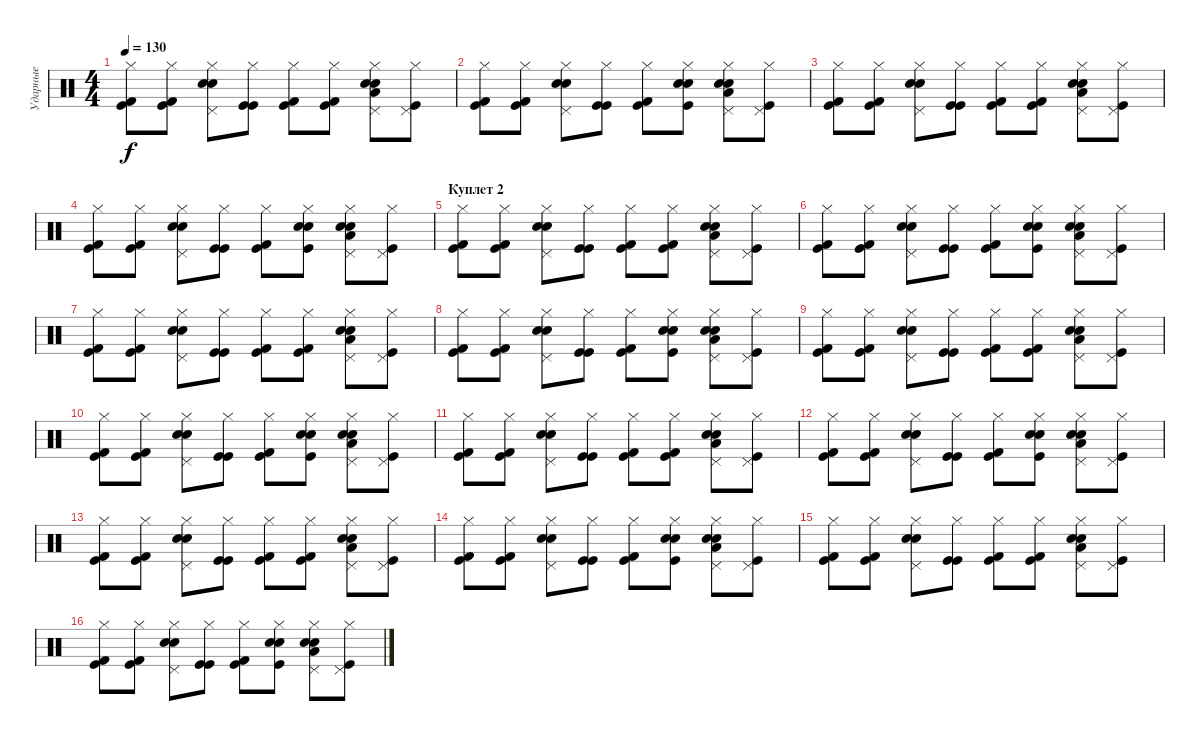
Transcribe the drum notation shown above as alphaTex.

\track ("Ударные" "Ударные") {instrument percussion}
\staff {score}
\articulation defaults
\ts (4 4)
\tempo 130
\clef neutral
\ks c
("Kick (hit)" "Kick (hit) 2" "Hi-Hat (closed)").8{dy f} ("Kick (hit)" "Kick (hit) 2" "Hi-Hat (closed)").8 ("Electric Snare (hit)" "Pedal Hi-Hat (hit)" "Hi-Hat (closed)" "Snare (hit) 2").8 ("Kick (hit)" "Kick (hit)" "Hi-Hat (closed)").8 ("Kick (hit)" "Kick (hit) 2" "Hi-Hat (closed)").8 ("Kick (hit)" "Kick (hit) 2" "Hi-Hat (closed)").8 ("Low Tom (hit)" "Electric Snare (hit)" "Pedal Hi-Hat (hit)" "Hi-Hat (closed)" "Snare (hit) 2").8 ("Pedal Hi-Hat (hit)" "Kick (hit)" "Hi-Hat (closed)").8 |
("Kick (hit)" "Kick (hit) 2" "Hi-Hat (closed)").8 ("Kick (hit)" "Kick (hit) 2" "Hi-Hat (closed)").8 ("Snare (hit) 2" "Electric Snare (hit)" "Pedal Hi-Hat (hit)" "Hi-Hat (closed)").8 ("Kick (hit)" "Kick (hit)" "Hi-Hat (closed)").8 ("Kick (hit)" "Kick (hit) 2" "Hi-Hat (closed)").8 ("Kick (hit)" "Electric Snare (hit)" "Hi-Hat (closed)" "Snare (hit) 2").8 ("Low Tom (hit)" "Electric Snare (hit)" "Pedal Hi-Hat (hit)" "Hi-Hat (closed)" "Snare (hit) 2").8 ("Pedal Hi-Hat (hit)" "Kick (hit)" "Hi-Hat (closed)").8 |
("Kick (hit)" "Kick (hit) 2" "Hi-Hat (closed)").8 ("Kick (hit)" "Kick (hit) 2" "Hi-Hat (closed)").8 ("Electric Snare (hit)" "Pedal Hi-Hat (hit)" "Hi-Hat (closed)" "Snare (hit) 2").8 ("Kick (hit)" "Kick (hit)" "Hi-Hat (closed)").8 ("Kick (hit)" "Kick (hit) 2" "Hi-Hat (closed)").8 ("Kick (hit)" "Kick (hit) 2" "Hi-Hat (closed)").8 ("Low Tom (hit)" "Electric Snare (hit)" "Pedal Hi-Hat (hit)" "Hi-Hat (closed)" "Snare (hit) 2").8 ("Pedal Hi-Hat (hit)" "Kick (hit)" "Hi-Hat (closed)").8 |
("Kick (hit)" "Kick (hit) 2" "Hi-Hat (closed)").8 ("Kick (hit)" "Kick (hit) 2" "Hi-Hat (closed)").8 ("Snare (hit) 2" "Electric Snare (hit)" "Pedal Hi-Hat (hit)" "Hi-Hat (closed)").8 ("Kick (hit)" "Kick (hit)" "Hi-Hat (closed)").8 ("Kick (hit)" "Kick (hit) 2" "Hi-Hat (closed)").8 ("Kick (hit)" "Electric Snare (hit)" "Hi-Hat (closed)" "Snare (hit) 2").8 ("Low Tom (hit)" "Electric Snare (hit)" "Pedal Hi-Hat (hit)" "Hi-Hat (closed)" "Snare (hit) 2").8 ("Pedal Hi-Hat (hit)" "Kick (hit)" "Hi-Hat (closed)").8 |
\section ("" "Куплет 2")
("Kick (hit)" "Kick (hit) 2" "Hi-Hat (closed)").8 ("Kick (hit)" "Kick (hit) 2" "Hi-Hat (closed)").8 ("Electric Snare (hit)" "Pedal Hi-Hat (hit)" "Hi-Hat (closed)" "Snare (hit) 2").8 ("Kick (hit)" "Kick (hit)" "Hi-Hat (closed)").8 ("Kick (hit)" "Kick (hit) 2" "Hi-Hat (closed)").8 ("Kick (hit)" "Kick (hit) 2" "Hi-Hat (closed)").8 ("Low Tom (hit)" "Electric Snare (hit)" "Pedal Hi-Hat (hit)" "Hi-Hat (closed)" "Snare (hit) 2").8 ("Pedal Hi-Hat (hit)" "Kick (hit)" "Hi-Hat (closed)").8 |
("Kick (hit)" "Kick (hit) 2" "Hi-Hat (closed)").8 ("Kick (hit)" "Kick (hit) 2" "Hi-Hat (closed)").8 ("Snare (hit) 2" "Electric Snare (hit)" "Pedal Hi-Hat (hit)" "Hi-Hat (closed)").8 ("Kick (hit)" "Kick (hit)" "Hi-Hat (closed)").8 ("Kick (hit)" "Kick (hit) 2" "Hi-Hat (closed)").8 ("Kick (hit)" "Electric Snare (hit)" "Hi-Hat (closed)" "Snare (hit) 2").8 ("Low Tom (hit)" "Electric Snare (hit)" "Pedal Hi-Hat (hit)" "Hi-Hat (closed)" "Snare (hit) 2").8 ("Pedal Hi-Hat (hit)" "Kick (hit)" "Hi-Hat (closed)").8 |
("Kick (hit)" "Kick (hit) 2" "Hi-Hat (closed)").8 ("Kick (hit)" "Kick (hit) 2" "Hi-Hat (closed)").8 ("Electric Snare (hit)" "Pedal Hi-Hat (hit)" "Hi-Hat (closed)" "Snare (hit) 2").8 ("Kick (hit)" "Kick (hit)" "Hi-Hat (closed)").8 ("Kick (hit)" "Kick (hit) 2" "Hi-Hat (closed)").8 ("Kick (hit)" "Kick (hit) 2" "Hi-Hat (closed)").8 ("Low Tom (hit)" "Electric Snare (hit)" "Pedal Hi-Hat (hit)" "Hi-Hat (closed)" "Snare (hit) 2").8 ("Pedal Hi-Hat (hit)" "Kick (hit)" "Hi-Hat (closed)").8 |
("Kick (hit)" "Kick (hit) 2" "Hi-Hat (closed)").8 ("Kick (hit)" "Kick (hit) 2" "Hi-Hat (closed)").8 ("Snare (hit) 2" "Electric Snare (hit)" "Pedal Hi-Hat (hit)" "Hi-Hat (closed)").8 ("Kick (hit)" "Kick (hit)" "Hi-Hat (closed)").8 ("Kick (hit)" "Kick (hit) 2" "Hi-Hat (closed)").8 ("Kick (hit)" "Electric Snare (hit)" "Hi-Hat (closed)" "Snare (hit) 2").8 ("Low Tom (hit)" "Electric Snare (hit)" "Pedal Hi-Hat (hit)" "Hi-Hat (closed)" "Snare (hit) 2").8 ("Pedal Hi-Hat (hit)" "Kick (hit)" "Hi-Hat (closed)").8 |
("Kick (hit)" "Kick (hit) 2" "Hi-Hat (closed)").8 ("Kick (hit)" "Kick (hit) 2" "Hi-Hat (closed)").8 ("Electric Snare (hit)" "Pedal Hi-Hat (hit)" "Hi-Hat (closed)" "Snare (hit) 2").8 ("Kick (hit)" "Kick (hit)" "Hi-Hat (closed)").8 ("Kick (hit)" "Kick (hit) 2" "Hi-Hat (closed)").8 ("Kick (hit)" "Kick (hit) 2" "Hi-Hat (closed)").8 ("Low Tom (hit)" "Electric Snare (hit)" "Pedal Hi-Hat (hit)" "Hi-Hat (closed)" "Snare (hit) 2").8 ("Pedal Hi-Hat (hit)" "Kick (hit)" "Hi-Hat (closed)").8 |
("Kick (hit)" "Kick (hit) 2" "Hi-Hat (closed)").8 ("Kick (hit)" "Kick (hit) 2" "Hi-Hat (closed)").8 ("Snare (hit) 2" "Electric Snare (hit)" "Pedal Hi-Hat (hit)" "Hi-Hat (closed)").8 ("Kick (hit)" "Kick (hit)" "Hi-Hat (closed)").8 ("Kick (hit)" "Kick (hit) 2" "Hi-Hat (closed)").8 ("Kick (hit)" "Electric Snare (hit)" "Hi-Hat (closed)" "Snare (hit) 2").8 ("Low Tom (hit)" "Electric Snare (hit)" "Pedal Hi-Hat (hit)" "Hi-Hat (closed)" "Snare (hit) 2").8 ("Pedal Hi-Hat (hit)" "Kick (hit)" "Hi-Hat (closed)").8 |
("Kick (hit)" "Kick (hit) 2" "Hi-Hat (closed)").8 ("Kick (hit)" "Kick (hit) 2" "Hi-Hat (closed)").8 ("Electric Snare (hit)" "Pedal Hi-Hat (hit)" "Hi-Hat (closed)" "Snare (hit) 2").8 ("Kick (hit)" "Kick (hit)" "Hi-Hat (closed)").8 ("Kick (hit)" "Kick (hit) 2" "Hi-Hat (closed)").8 ("Kick (hit)" "Kick (hit) 2" "Hi-Hat (closed)").8 ("Low Tom (hit)" "Electric Snare (hit)" "Pedal Hi-Hat (hit)" "Hi-Hat (closed)" "Snare (hit) 2").8 ("Pedal Hi-Hat (hit)" "Kick (hit)" "Hi-Hat (closed)").8 |
("Kick (hit)" "Kick (hit) 2" "Hi-Hat (closed)").8 ("Kick (hit)" "Kick (hit) 2" "Hi-Hat (closed)").8 ("Snare (hit) 2" "Electric Snare (hit)" "Pedal Hi-Hat (hit)" "Hi-Hat (closed)").8 ("Kick (hit)" "Kick (hit)" "Hi-Hat (closed)").8 ("Kick (hit)" "Kick (hit) 2" "Hi-Hat (closed)").8 ("Kick (hit)" "Electric Snare (hit)" "Hi-Hat (closed)" "Snare (hit) 2").8 ("Low Tom (hit)" "Electric Snare (hit)" "Pedal Hi-Hat (hit)" "Hi-Hat (closed)" "Snare (hit) 2").8 ("Pedal Hi-Hat (hit)" "Kick (hit)" "Hi-Hat (closed)").8 |
("Kick (hit)" "Kick (hit) 2" "Hi-Hat (closed)").8 ("Kick (hit)" "Kick (hit) 2" "Hi-Hat (closed)").8 ("Electric Snare (hit)" "Pedal Hi-Hat (hit)" "Hi-Hat (closed)" "Snare (hit) 2").8 ("Kick (hit)" "Kick (hit)" "Hi-Hat (closed)").8 ("Kick (hit)" "Kick (hit) 2" "Hi-Hat (closed)").8 ("Kick (hit)" "Kick (hit) 2" "Hi-Hat (closed)").8 ("Low Tom (hit)" "Electric Snare (hit)" "Pedal Hi-Hat (hit)" "Hi-Hat (closed)" "Snare (hit) 2").8 ("Pedal Hi-Hat (hit)" "Kick (hit)" "Hi-Hat (closed)").8 |
("Kick (hit)" "Kick (hit) 2" "Hi-Hat (closed)").8 ("Kick (hit)" "Kick (hit) 2" "Hi-Hat (closed)").8 ("Snare (hit) 2" "Electric Snare (hit)" "Pedal Hi-Hat (hit)" "Hi-Hat (closed)").8 ("Kick (hit)" "Kick (hit)" "Hi-Hat (closed)").8 ("Kick (hit)" "Kick (hit) 2" "Hi-Hat (closed)").8 ("Kick (hit)" "Electric Snare (hit)" "Hi-Hat (closed)" "Snare (hit) 2").8 ("Low Tom (hit)" "Electric Snare (hit)" "Pedal Hi-Hat (hit)" "Hi-Hat (closed)" "Snare (hit) 2").8 ("Pedal Hi-Hat (hit)" "Kick (hit)" "Hi-Hat (closed)").8 |
("Kick (hit)" "Kick (hit) 2" "Hi-Hat (closed)").8 ("Kick (hit)" "Kick (hit) 2" "Hi-Hat (closed)").8 ("Electric Snare (hit)" "Pedal Hi-Hat (hit)" "Hi-Hat (closed)" "Snare (hit) 2").8 ("Kick (hit)" "Kick (hit)" "Hi-Hat (closed)").8 ("Kick (hit)" "Kick (hit) 2" "Hi-Hat (closed)").8 ("Kick (hit)" "Kick (hit) 2" "Hi-Hat (closed)").8 ("Low Tom (hit)" "Electric Snare (hit)" "Pedal Hi-Hat (hit)" "Hi-Hat (closed)" "Snare (hit) 2").8 ("Pedal Hi-Hat (hit)" "Kick (hit)" "Hi-Hat (closed)").8 |
("Kick (hit)" "Kick (hit) 2" "Hi-Hat (closed)").8 ("Kick (hit)" "Kick (hit) 2" "Hi-Hat (closed)").8 ("Snare (hit) 2" "Electric Snare (hit)" "Pedal Hi-Hat (hit)" "Hi-Hat (closed)").8 ("Kick (hit)" "Kick (hit)" "Hi-Hat (closed)").8 ("Kick (hit)" "Kick (hit) 2" "Hi-Hat (closed)").8 ("Kick (hit)" "Electric Snare (hit)" "Hi-Hat (closed)" "Snare (hit) 2").8 ("Low Tom (hit)" "Electric Snare (hit)" "Pedal Hi-Hat (hit)" "Hi-Hat (closed)" "Snare (hit) 2").8 ("Pedal Hi-Hat (hit)" "Kick (hit)" "Hi-Hat (closed)").8
